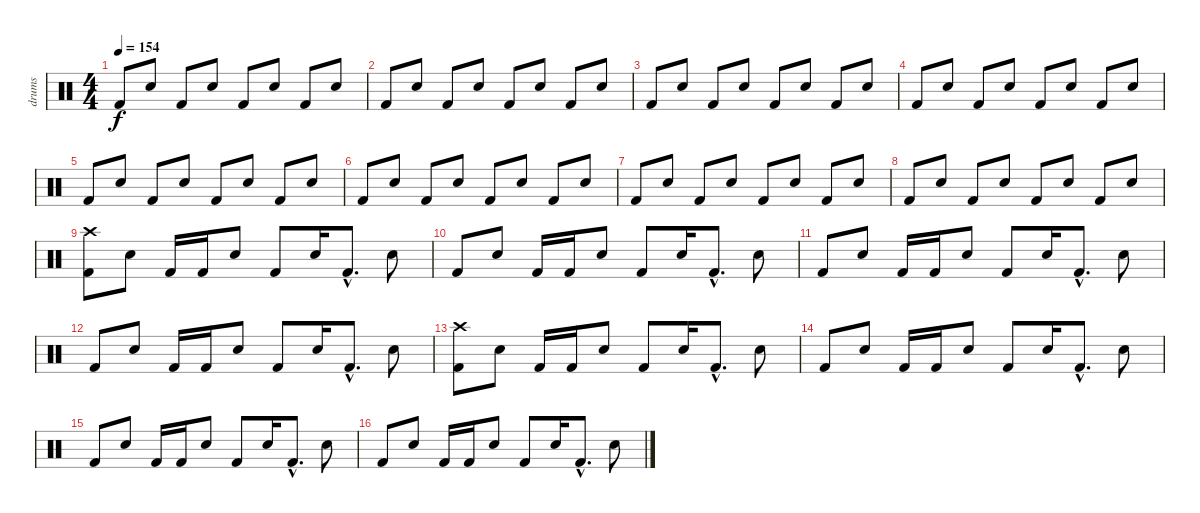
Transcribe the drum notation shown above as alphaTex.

\track ("drums" "drums") {instrument percussion}
\staff {score}
\articulation defaults
\ts (4 4)
\tempo 154
\clef neutral
\ks c "Kick (hit) 2".8{dy f} "Snare (hit) 2".8 "Kick (hit) 2".8 "Snare (hit) 2".8 "Kick (hit) 2".8 "Snare (hit) 2".8 "Kick (hit) 2".8 "Snare (hit) 2".8
|
"Kick (hit) 2".8 "Snare (hit) 2".8 "Kick (hit) 2".8 "Snare (hit) 2".8 "Kick (hit) 2".8 "Snare (hit) 2".8 "Kick (hit) 2".8 "Snare (hit) 2".8 |
"Kick (hit) 2".8 "Snare (hit) 2".8 "Kick (hit) 2".8 "Snare (hit) 2".8 "Kick (hit) 2".8 "Snare (hit) 2".8 "Kick (hit) 2".8 "Snare (hit) 2".8 |
"Kick (hit) 2".8 "Snare (hit) 2".8 "Kick (hit) 2".8 "Snare (hit) 2".8 "Kick (hit) 2".8 "Snare (hit) 2".8 "Kick (hit) 2".8 "Snare (hit) 2".8 |
"Kick (hit) 2".8 "Snare (hit) 2".8 "Kick (hit) 2".8 "Snare (hit) 2".8 "Kick (hit) 2".8 "Snare (hit) 2".8 "Kick (hit) 2".8 "Snare (hit) 2".8 |
"Kick (hit) 2".8 "Snare (hit) 2".8 "Kick (hit) 2".8 "Snare (hit) 2".8 "Kick (hit) 2".8 "Snare (hit) 2".8 "Kick (hit) 2".8 "Snare (hit) 2".8 |
"Kick (hit) 2".8 "Snare (hit) 2".8 "Kick (hit) 2".8 "Snare (hit) 2".8 "Kick (hit) 2".8 "Snare (hit) 2".8 "Kick (hit) 2".8 "Snare (hit) 2".8 |
"Kick (hit) 2".8 "Snare (hit) 2".8 "Kick (hit) 2".8 "Snare (hit) 2".8 "Kick (hit) 2".8 "Snare (hit) 2".8 "Kick (hit) 2".8 "Snare (hit) 2".8 |
("Crash high (hit)" "Kick (hit) 2").8 "Snare (hit) 2".8 "Kick (hit) 2".16 "Kick (hit) 2".16 "Snare (hit) 2".8 "Kick (hit) 2".8 "Snare (hit) 2".16 "Kick (hit) 2"{hac}.8{d} "Snare (hit) 2".8 |
"Kick (hit) 2".8 "Snare (hit) 2".8 "Kick (hit) 2".16 "Kick (hit) 2".16 "Snare (hit) 2".8 "Kick (hit) 2".8 "Snare (hit) 2".16 "Kick (hit) 2"{hac}.8{d} "Snare (hit) 2".8 |
"Kick (hit) 2".8 "Snare (hit) 2".8 "Kick (hit) 2".16 "Kick (hit) 2".16 "Snare (hit) 2".8 "Kick (hit) 2".8 "Snare (hit) 2".16 "Kick (hit) 2"{hac}.8{d} "Snare (hit) 2".8 |
"Kick (hit) 2".8 "Snare (hit) 2".8 "Kick (hit) 2".16 "Kick (hit) 2".16 "Snare (hit) 2".8 "Kick (hit) 2".8 "Snare (hit) 2".16 "Kick (hit) 2"{hac}.8{d} "Snare (hit) 2".8 |
("Crash high (hit)" "Kick (hit) 2").8 "Snare (hit) 2".8 "Kick (hit) 2".16 "Kick (hit) 2".16 "Snare (hit) 2".8 "Kick (hit) 2".8 "Snare (hit) 2".16 "Kick (hit) 2"{hac}.8{d} "Snare (hit) 2".8 |
"Kick (hit) 2".8 "Snare (hit) 2".8 "Kick (hit) 2".16 "Kick (hit) 2".16 "Snare (hit) 2".8 "Kick (hit) 2".8 "Snare (hit) 2".16 "Kick (hit) 2"{hac}.8{d} "Snare (hit) 2".8 |
"Kick (hit) 2".8 "Snare (hit) 2".8 "Kick (hit) 2".16 "Kick (hit) 2".16 "Snare (hit) 2".8 "Kick (hit) 2".8 "Snare (hit) 2".16 "Kick (hit) 2"{hac}.8{d} "Snare (hit) 2".8 |
"Kick (hit) 2".8 "Snare (hit) 2".8 "Kick (hit) 2".16 "Kick (hit) 2".16 "Snare (hit) 2".8 "Kick (hit) 2".8 "Snare (hit) 2".16 "Kick (hit) 2"{hac}.8{d} "Snare (hit) 2".8
